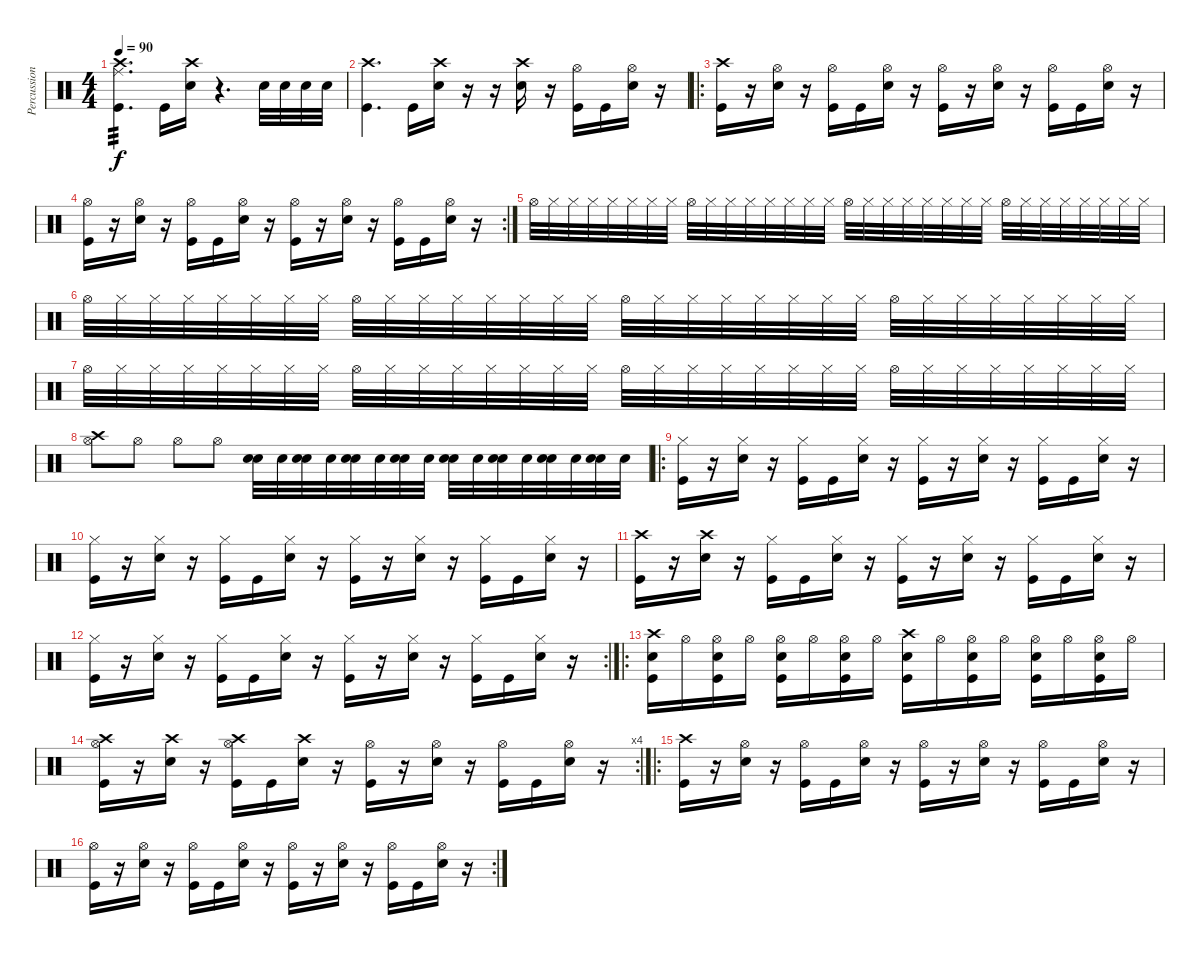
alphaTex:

\track ("Percussion" "Percussion") {instrument percussion}
\staff {score}
\articulation defaults
\ts (4 4)
\tempo 90
\clef neutral
\ks c
("Crash high (hit)" "Ride (middle)" "Kick (hit)").4{d tp 3 dy f} "Kick (hit)".16 ("Crash high (hit)" "Snare (hit) 2").16 r.4{d} "Snare (hit) 2".32 "Snare (hit) 2".32 "Snare (hit) 2".32 "Snare (hit) 2".32 |
("Crash high (hit)" "Kick (hit)").4{d} "Kick (hit)".16 ("Crash high (hit)" "Snare (hit) 2").16 r.16 r.16 ("Crash high (hit)" "Snare (hit) 2").16 r.16 ("Hi-Hat (open)" "Kick (hit)").16 "Kick (hit)".16 ("Hi-Hat (open)" "Snare (hit) 2").16 r.16 |
\ro
("Crash high (hit)" "Kick (hit)").16 r.16 ("Hi-Hat (open)" "Snare (hit) 2").16 r.16 ("Hi-Hat (open)" "Kick (hit)").16 "Kick (hit)".16 ("Hi-Hat (open)" "Snare (hit) 2").16 r.16 ("Hi-Hat (open)" "Kick (hit)").16 r.16 ("Hi-Hat (open)" "Snare (hit) 2").16 r.16 ("Hi-Hat (open)" "Kick (hit)").16 "Kick (hit)".16 ("Hi-Hat (open)" "Snare (hit) 2").16 r.16 |
\rc 2
("Hi-Hat (open)" "Kick (hit)").16 r.16 ("Hi-Hat (open)" "Snare (hit) 2").16 r.16 ("Hi-Hat (open)" "Kick (hit)").16 "Kick (hit)".16 ("Hi-Hat (open)" "Snare (hit) 2").16 r.16 ("Hi-Hat (open)" "Kick (hit)").16 r.16 ("Hi-Hat (open)" "Snare (hit) 2").16 r.16 ("Hi-Hat (open)" "Kick (hit)").16 "Kick (hit)".16 ("Hi-Hat (open)" "Snare (hit) 2").16 r.16 |
"Hi-Hat (open)".32 "Hi-Hat (closed)".32 "Hi-Hat (closed)".32 "Hi-Hat (closed)".32 "Hi-Hat (closed)".32 "Hi-Hat (closed)".32 "Hi-Hat (closed)".32 "Hi-Hat (closed)".32 "Hi-Hat (open)".32 "Hi-Hat (closed)".32 "Hi-Hat (closed)".32 "Hi-Hat (closed)".32 "Hi-Hat (closed)".32 "Hi-Hat (closed)".32 "Hi-Hat (closed)".32 "Hi-Hat (closed)".32 "Hi-Hat (open)".32 "Hi-Hat (closed)".32 "Hi-Hat (closed)".32 "Hi-Hat (closed)".32 "Hi-Hat (closed)".32 "Hi-Hat (closed)".32 "Hi-Hat (closed)".32 "Hi-Hat (closed)".32 "Hi-Hat (open)".32 "Hi-Hat (closed)".32 "Hi-Hat (closed)".32 "Hi-Hat (closed)".32 "Hi-Hat (closed)".32 "Hi-Hat (closed)".32 "Hi-Hat (closed)".32 "Hi-Hat (closed)".32 |
"Hi-Hat (open)".32 "Hi-Hat (closed)".32 "Hi-Hat (closed)".32 "Hi-Hat (closed)".32 "Hi-Hat (closed)".32 "Hi-Hat (closed)".32 "Hi-Hat (closed)".32 "Hi-Hat (closed)".32 "Hi-Hat (open)".32 "Hi-Hat (closed)".32 "Hi-Hat (closed)".32 "Hi-Hat (closed)".32 "Hi-Hat (closed)".32 "Hi-Hat (closed)".32 "Hi-Hat (closed)".32 "Hi-Hat (closed)".32 "Hi-Hat (open)".32 "Hi-Hat (closed)".32 "Hi-Hat (closed)".32 "Hi-Hat (closed)".32 "Hi-Hat (closed)".32 "Hi-Hat (closed)".32 "Hi-Hat (closed)".32 "Hi-Hat (closed)".32 "Hi-Hat (open)".32 "Hi-Hat (closed)".32 "Hi-Hat (closed)".32 "Hi-Hat (closed)".32 "Hi-Hat (closed)".32 "Hi-Hat (closed)".32 "Hi-Hat (closed)".32 "Hi-Hat (closed)".32 |
"Hi-Hat (open)".32 "Hi-Hat (closed)".32 "Hi-Hat (closed)".32 "Hi-Hat (closed)".32 "Hi-Hat (closed)".32 "Hi-Hat (closed)".32 "Hi-Hat (closed)".32 "Hi-Hat (closed)".32 "Hi-Hat (open)".32 "Hi-Hat (closed)".32 "Hi-Hat (closed)".32 "Hi-Hat (closed)".32 "Hi-Hat (closed)".32 "Hi-Hat (closed)".32 "Hi-Hat (closed)".32 "Hi-Hat (closed)".32 "Hi-Hat (open)".32 "Hi-Hat (closed)".32 "Hi-Hat (closed)".32 "Hi-Hat (closed)".32 "Hi-Hat (closed)".32 "Hi-Hat (closed)".32 "Hi-Hat (closed)".32 "Hi-Hat (closed)".32 "Hi-Hat (open)".32 "Hi-Hat (closed)".32 "Hi-Hat (closed)".32 "Hi-Hat (closed)".32 "Hi-Hat (closed)".32 "Hi-Hat (closed)".32 "Hi-Hat (closed)".32 "Hi-Hat (closed)".32 |
("Crash high (hit)" "Hi-Hat (open)").8 "Hi-Hat (open)".8 "Hi-Hat (open)".8 "Hi-Hat (open)".8 ("Snare (hit) 2" "Snare (hit) 2").32 "Snare (hit) 2".32 ("Snare (hit) 2" "Snare (hit) 2").32 "Snare (hit) 2".32 ("Snare (hit) 2" "Snare (hit) 2").32 "Snare (hit) 2".32 ("Snare (hit) 2" "Snare (hit) 2").32 "Snare (hit) 2".32 ("Snare (hit) 2" "Snare (hit) 2").32 "Snare (hit) 2".32 ("Snare (hit) 2" "Snare (hit) 2").32 "Snare (hit) 2".32 ("Snare (hit) 2" "Snare (hit) 2").32 "Snare (hit) 2".32 ("Snare (hit) 2" "Snare (hit) 2").32 "Snare (hit) 2".32 |
\ro
("Hi-Hat (closed)" "Kick (hit)").16 r.16 ("Hi-Hat (closed)" "Snare (hit) 2").16 r.16 ("Hi-Hat (closed)" "Kick (hit)").16 "Kick (hit)".16 ("Hi-Hat (closed)" "Snare (hit) 2").16 r.16 ("Hi-Hat (closed)" "Kick (hit)").16 r.16 ("Hi-Hat (closed)" "Snare (hit) 2").16 r.16 ("Hi-Hat (closed)" "Kick (hit)").16 "Kick (hit)".16 ("Hi-Hat (closed)" "Snare (hit) 2").16 r.16 |
("Hi-Hat (closed)" "Kick (hit)").16 r.16 ("Hi-Hat (closed)" "Snare (hit) 2").16 r.16 ("Hi-Hat (closed)" "Kick (hit)").16 "Kick (hit)".16 ("Hi-Hat (closed)" "Snare (hit) 2").16 r.16 ("Hi-Hat (closed)" "Kick (hit)").16 r.16 ("Hi-Hat (closed)" "Snare (hit) 2").16 r.16 ("Hi-Hat (closed)" "Kick (hit)").16 "Kick (hit)".16 ("Hi-Hat (closed)" "Snare (hit) 2").16 r.16 |
("Crash high (hit)" "Kick (hit)").16 r.16 ("Crash high (hit)" "Snare (hit) 2").16 r.16 ("Hi-Hat (closed)" "Kick (hit)").16 "Kick (hit)".16 ("Hi-Hat (closed)" "Snare (hit) 2").16 r.16 ("Hi-Hat (closed)" "Kick (hit)").16 r.16 ("Hi-Hat (closed)" "Snare (hit) 2").16 r.16 ("Hi-Hat (closed)" "Kick (hit)").16 "Kick (hit)".16 ("Hi-Hat (closed)" "Snare (hit) 2").16 r.16 |
\rc 2
("Hi-Hat (closed)" "Kick (hit)").16 r.16 ("Hi-Hat (closed)" "Snare (hit) 2").16 r.16 ("Hi-Hat (closed)" "Kick (hit)").16 "Kick (hit)".16 ("Hi-Hat (closed)" "Snare (hit) 2").16 r.16 ("Hi-Hat (closed)" "Kick (hit)").16 r.16 ("Hi-Hat (closed)" "Snare (hit) 2").16 r.16 ("Hi-Hat (closed)" "Kick (hit)").16 "Kick (hit)".16 ("Hi-Hat (closed)" "Snare (hit) 2").16 r.16 |
\ro
("Snare (hit) 2" "Kick (hit)" "Crash high (hit)").16 "Hi-Hat (open)".16 ("Snare (hit) 2" "Kick (hit)" "Hi-Hat (open)").16 "Hi-Hat (open)".16 ("Snare (hit) 2" "Kick (hit)" "Hi-Hat (open)").16 "Hi-Hat (open)".16 ("Snare (hit) 2" "Kick (hit)" "Hi-Hat (open)").16 "Hi-Hat (open)".16 ("Snare (hit) 2" "Kick (hit)" "Crash high (hit)").16 "Hi-Hat (open)".16 ("Snare (hit) 2" "Kick (hit)" "Hi-Hat (open)").16 "Hi-Hat (open)".16 ("Snare (hit) 2" "Kick (hit)" "Hi-Hat (open)").16 "Hi-Hat (open)".16 ("Snare (hit) 2" "Kick (hit)" "Hi-Hat (open)").16 "Hi-Hat (open)".16 |
\rc 4
("Crash high (hit)" "Hi-Hat (open)" "Kick (hit)").16 r.16 ("Crash high (hit)" "Snare (hit) 2").16 r.16 ("Crash high (hit)" "Hi-Hat (open)" "Kick (hit)").16 "Kick (hit)".16 ("Crash high (hit)" "Snare (hit) 2").16 r.16 ("Hi-Hat (open)" "Kick (hit)").16 r.16 ("Hi-Hat (open)" "Snare (hit) 2").16 r.16 ("Hi-Hat (open)" "Kick (hit)").16 "Kick (hit)".16 ("Hi-Hat (open)" "Snare (hit) 2").16 r.16 |
\ro
("Crash high (hit)" "Kick (hit)").16 r.16 ("Hi-Hat (open)" "Snare (hit) 2").16 r.16 ("Hi-Hat (open)" "Kick (hit)").16 "Kick (hit)".16 ("Hi-Hat (open)" "Snare (hit) 2").16 r.16 ("Hi-Hat (open)" "Kick (hit)").16 r.16 ("Hi-Hat (open)" "Snare (hit) 2").16 r.16 ("Hi-Hat (open)" "Kick (hit)").16 "Kick (hit)".16 ("Hi-Hat (open)" "Snare (hit) 2").16 r.16 |
\rc 2
("Hi-Hat (open)" "Kick (hit)").16 r.16 ("Hi-Hat (open)" "Snare (hit) 2").16 r.16 ("Hi-Hat (open)" "Kick (hit)").16 "Kick (hit)".16 ("Hi-Hat (open)" "Snare (hit) 2").16 r.16 ("Hi-Hat (open)" "Kick (hit)").16 r.16 ("Hi-Hat (open)" "Snare (hit) 2").16 r.16 ("Hi-Hat (open)" "Kick (hit)").16 "Kick (hit)".16 ("Hi-Hat (open)" "Snare (hit) 2").16 r.16
